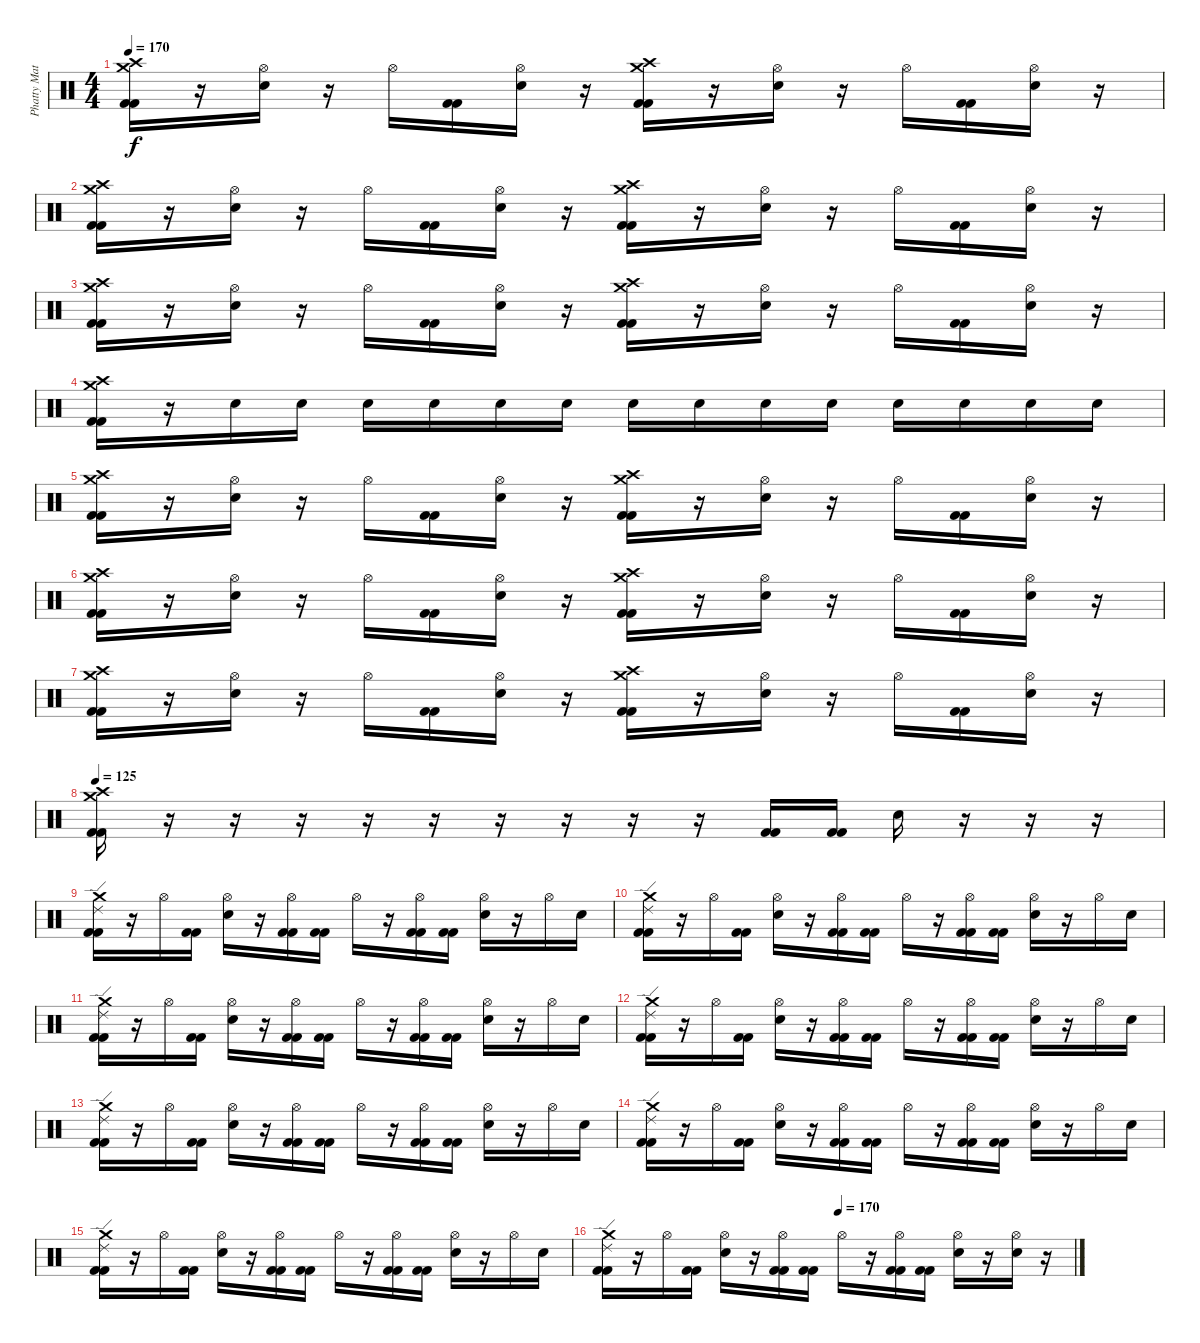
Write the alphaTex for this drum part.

\track ("Phatty Matty Withrow (Drums)" "Phatty Mat") {instrument percussion}
\staff {score}
\articulation defaults
\ts (4 4)
\tempo 170
\clef neutral
\ks c
("Crash medium (hit)" "Crash high (hit)" "Kick (hit) 2" "Kick (hit) 2").16{dy f} r.16 ("Hi-Hat (open)" "Electric Snare (hit)").16 r.16 "Hi-Hat (open)".16 ("Kick (hit) 2" "Kick (hit) 2").16 ("Hi-Hat (open)" "Electric Snare (hit)").16 r.16 ("Crash medium (hit)" "Crash high (hit)" "Kick (hit) 2" "Kick (hit) 2").16 r.16 ("Hi-Hat (open)" "Electric Snare (hit)").16 r.16 "Hi-Hat (open)".16 ("Kick (hit) 2" "Kick (hit) 2").16 ("Hi-Hat (open)" "Electric Snare (hit)").16 r.16 |
("Crash medium (hit)" "Crash high (hit)" "Kick (hit) 2" "Kick (hit) 2").16 r.16 ("Hi-Hat (open)" "Electric Snare (hit)").16 r.16 "Hi-Hat (open)".16 ("Kick (hit) 2" "Kick (hit) 2").16 ("Hi-Hat (open)" "Electric Snare (hit)").16 r.16 ("Crash medium (hit)" "Crash high (hit)" "Kick (hit) 2" "Kick (hit) 2").16 r.16 ("Hi-Hat (open)" "Electric Snare (hit)").16 r.16 "Hi-Hat (open)".16 ("Kick (hit) 2" "Kick (hit) 2").16 ("Hi-Hat (open)" "Electric Snare (hit)").16 r.16 |
("Crash medium (hit)" "Crash high (hit)" "Kick (hit) 2" "Kick (hit) 2").16 r.16 ("Hi-Hat (open)" "Electric Snare (hit)").16 r.16 "Hi-Hat (open)".16 ("Kick (hit) 2" "Kick (hit) 2").16 ("Hi-Hat (open)" "Electric Snare (hit)").16 r.16 ("Crash medium (hit)" "Crash high (hit)" "Kick (hit) 2" "Kick (hit) 2").16 r.16 ("Hi-Hat (open)" "Electric Snare (hit)").16 r.16 "Hi-Hat (open)".16 ("Kick (hit) 2" "Kick (hit) 2").16 ("Hi-Hat (open)" "Electric Snare (hit)").16 r.16 |
("Crash medium (hit)" "Crash high (hit)" "Kick (hit) 2" "Kick (hit) 2").16 r.16 "Electric Snare (hit)".16 "Electric Snare (hit)".16 "Electric Snare (hit)".16 "Electric Snare (hit)".16 "Electric Snare (hit)".16 "Electric Snare (hit)".16 "Electric Snare (hit)".16 "Electric Snare (hit)".16 "Electric Snare (hit)".16 "Electric Snare (hit)".16 "Electric Snare (hit)".16 "Electric Snare (hit)".16 "Electric Snare (hit)".16 "Electric Snare (hit)".16 |
("Crash medium (hit)" "Crash high (hit)" "Kick (hit) 2" "Kick (hit) 2").16 r.16 ("Hi-Hat (open)" "Electric Snare (hit)").16 r.16 "Hi-Hat (open)".16 ("Kick (hit) 2" "Kick (hit) 2").16 ("Hi-Hat (open)" "Electric Snare (hit)").16 r.16 ("Crash medium (hit)" "Crash high (hit)" "Kick (hit) 2" "Kick (hit) 2").16 r.16 ("Hi-Hat (open)" "Electric Snare (hit)").16 r.16 "Hi-Hat (open)".16 ("Kick (hit) 2" "Kick (hit) 2").16 ("Hi-Hat (open)" "Electric Snare (hit)").16 r.16 |
("Crash medium (hit)" "Crash high (hit)" "Kick (hit) 2" "Kick (hit) 2").16 r.16 ("Hi-Hat (open)" "Electric Snare (hit)").16 r.16 "Hi-Hat (open)".16 ("Kick (hit) 2" "Kick (hit) 2").16 ("Hi-Hat (open)" "Electric Snare (hit)").16 r.16 ("Crash medium (hit)" "Crash high (hit)" "Kick (hit) 2" "Kick (hit) 2").16 r.16 ("Hi-Hat (open)" "Electric Snare (hit)").16 r.16 "Hi-Hat (open)".16 ("Kick (hit) 2" "Kick (hit) 2").16 ("Hi-Hat (open)" "Electric Snare (hit)").16 r.16 |
("Crash medium (hit)" "Crash high (hit)" "Kick (hit) 2" "Kick (hit) 2").16 r.16 ("Hi-Hat (open)" "Electric Snare (hit)").16 r.16 "Hi-Hat (open)".16 ("Kick (hit) 2" "Kick (hit) 2").16 ("Hi-Hat (open)" "Electric Snare (hit)").16 r.16 ("Crash medium (hit)" "Crash high (hit)" "Kick (hit) 2" "Kick (hit) 2").16 r.16 ("Hi-Hat (open)" "Electric Snare (hit)").16 r.16 "Hi-Hat (open)".16 ("Kick (hit) 2" "Kick (hit) 2").16 ("Hi-Hat (open)" "Electric Snare (hit)").16 r.16 |
\tempo 125
("Crash medium (hit)" "Crash high (hit)" "Kick (hit) 2" "Kick (hit) 2").16 r.16 r.16 r.16 r.16 r.16 r.16 r.16 r.16 r.16 ("Kick (hit) 2" "Kick (hit) 2").16 ("Kick (hit) 2" "Kick (hit) 2").16 "Electric Snare (hit)".16 r.16 r.16 r.16 |
("Crash medium (hit)" "Ride (edge) 2" "Kick (hit) 2" "Kick (hit) 2").16 r.16 "Hi-Hat (open)".16 ("Kick (hit) 2" "Kick (hit) 2").16 ("Hi-Hat (open)" "Electric Snare (hit)").16 r.16 ("Hi-Hat (open)" "Kick (hit) 2" "Kick (hit) 2").16 ("Kick (hit) 2" "Kick (hit) 2").16 "Hi-Hat (open)".16 r.16 ("Hi-Hat (open)" "Kick (hit) 2" "Kick (hit) 2").16 ("Kick (hit) 2" "Kick (hit) 2").16 ("Hi-Hat (open)" "Electric Snare (hit)").16 r.16 "Hi-Hat (open)".16 "Electric Snare (hit)".16 |
("Crash medium (hit)" "Ride (edge) 2" "Kick (hit) 2" "Kick (hit) 2").16 r.16 "Hi-Hat (open)".16 ("Kick (hit) 2" "Kick (hit) 2").16 ("Hi-Hat (open)" "Electric Snare (hit)").16 r.16 ("Hi-Hat (open)" "Kick (hit) 2" "Kick (hit) 2").16 ("Kick (hit) 2" "Kick (hit) 2").16 "Hi-Hat (open)".16 r.16 ("Hi-Hat (open)" "Kick (hit) 2" "Kick (hit) 2").16 ("Kick (hit) 2" "Kick (hit) 2").16 ("Hi-Hat (open)" "Electric Snare (hit)").16 r.16 "Hi-Hat (open)".16 "Electric Snare (hit)".16 |
("Crash medium (hit)" "Ride (edge) 2" "Kick (hit) 2" "Kick (hit) 2").16 r.16 "Hi-Hat (open)".16 ("Kick (hit) 2" "Kick (hit) 2").16 ("Hi-Hat (open)" "Electric Snare (hit)").16 r.16 ("Hi-Hat (open)" "Kick (hit) 2" "Kick (hit) 2").16 ("Kick (hit) 2" "Kick (hit) 2").16 "Hi-Hat (open)".16 r.16 ("Hi-Hat (open)" "Kick (hit) 2" "Kick (hit) 2").16 ("Kick (hit) 2" "Kick (hit) 2").16 ("Hi-Hat (open)" "Electric Snare (hit)").16 r.16 "Hi-Hat (open)".16 "Electric Snare (hit)".16 |
("Crash medium (hit)" "Ride (edge) 2" "Kick (hit) 2" "Kick (hit) 2").16 r.16 "Hi-Hat (open)".16 ("Kick (hit) 2" "Kick (hit) 2").16 ("Hi-Hat (open)" "Electric Snare (hit)").16 r.16 ("Hi-Hat (open)" "Kick (hit) 2" "Kick (hit) 2").16 ("Kick (hit) 2" "Kick (hit) 2").16 "Hi-Hat (open)".16 r.16 ("Hi-Hat (open)" "Kick (hit) 2" "Kick (hit) 2").16 ("Kick (hit) 2" "Kick (hit) 2").16 ("Hi-Hat (open)" "Electric Snare (hit)").16 r.16 "Hi-Hat (open)".16 "Electric Snare (hit)".16 |
("Crash medium (hit)" "Ride (edge) 2" "Kick (hit) 2" "Kick (hit) 2").16 r.16 "Hi-Hat (open)".16 ("Kick (hit) 2" "Kick (hit) 2").16 ("Hi-Hat (open)" "Electric Snare (hit)").16 r.16 ("Hi-Hat (open)" "Kick (hit) 2" "Kick (hit) 2").16 ("Kick (hit) 2" "Kick (hit) 2").16 "Hi-Hat (open)".16 r.16 ("Hi-Hat (open)" "Kick (hit) 2" "Kick (hit) 2").16 ("Kick (hit) 2" "Kick (hit) 2").16 ("Hi-Hat (open)" "Electric Snare (hit)").16 r.16 "Hi-Hat (open)".16 "Electric Snare (hit)".16 |
("Crash medium (hit)" "Ride (edge) 2" "Kick (hit) 2" "Kick (hit) 2").16 r.16 "Hi-Hat (open)".16 ("Kick (hit) 2" "Kick (hit) 2").16 ("Hi-Hat (open)" "Electric Snare (hit)").16 r.16 ("Hi-Hat (open)" "Kick (hit) 2" "Kick (hit) 2").16 ("Kick (hit) 2" "Kick (hit) 2").16 "Hi-Hat (open)".16 r.16 ("Hi-Hat (open)" "Kick (hit) 2" "Kick (hit) 2").16 ("Kick (hit) 2" "Kick (hit) 2").16 ("Hi-Hat (open)" "Electric Snare (hit)").16 r.16 "Hi-Hat (open)".16 "Electric Snare (hit)".16 |
("Crash medium (hit)" "Ride (edge) 2" "Kick (hit) 2" "Kick (hit) 2").16 r.16 "Hi-Hat (open)".16 ("Kick (hit) 2" "Kick (hit) 2").16 ("Hi-Hat (open)" "Electric Snare (hit)").16 r.16 ("Hi-Hat (open)" "Kick (hit) 2" "Kick (hit) 2").16 ("Kick (hit) 2" "Kick (hit) 2").16 "Hi-Hat (open)".16 r.16 ("Hi-Hat (open)" "Kick (hit) 2" "Kick (hit) 2").16 ("Kick (hit) 2" "Kick (hit) 2").16 ("Hi-Hat (open)" "Electric Snare (hit)").16 r.16 "Hi-Hat (open)".16 "Electric Snare (hit)".16 |
\tempo (170 0.5)
("Crash medium (hit)" "Ride (edge) 2" "Kick (hit) 2" "Kick (hit) 2").16 r.16 "Hi-Hat (open)".16 ("Kick (hit) 2" "Kick (hit) 2").16 ("Hi-Hat (open)" "Electric Snare (hit)").16 r.16 ("Hi-Hat (open)" "Kick (hit) 2" "Kick (hit) 2").16 ("Kick (hit) 2" "Kick (hit) 2").16 "Hi-Hat (open)".16 r.16 ("Hi-Hat (open)" "Kick (hit) 2" "Kick (hit) 2").16 ("Kick (hit) 2" "Kick (hit) 2").16 ("Hi-Hat (open)" "Electric Snare (hit)").16 r.16 ("Hi-Hat (open)" "Electric Snare (hit)").16 r.16
